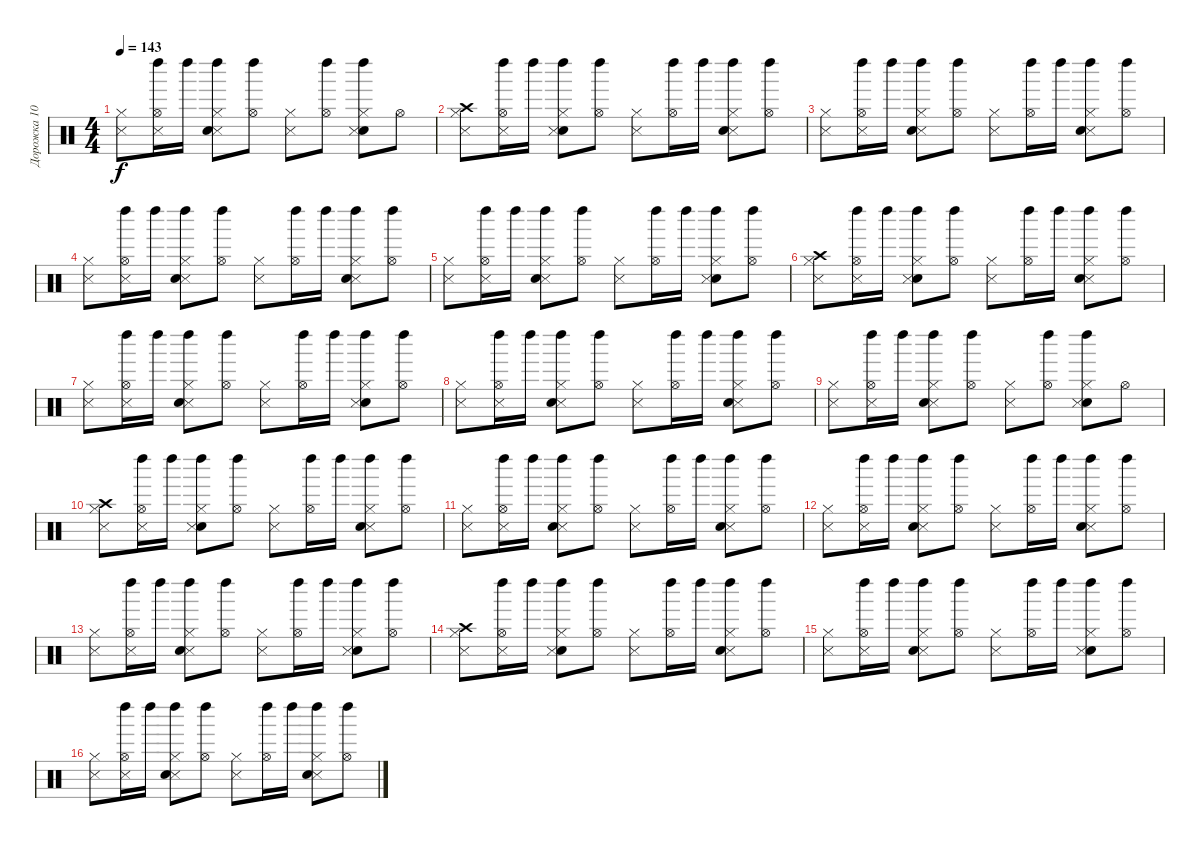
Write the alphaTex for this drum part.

\track ("Дорожка 10" "Дорожка 10") {instrument percussion}
\staff {score}
\articulation defaults
\ts (4 4)
\tempo 143
\clef neutral
\ks c
("Metronome (hit)" "Hi-Hat (closed)").8{dy f} ("Metronome (hit)" "Hi-Hat (open)" "Left Maraca (hit)").16 "Left Maraca (hit)".16 ("Metronome (hit)" "Electric Snare (hit)" "Hi-Hat (closed)" "Left Maraca (hit)").8 ("Hi-Hat (open)" "Left Maraca (hit)").8 ("Metronome (hit)" "Hi-Hat (closed)").8 ("Hi-Hat (open)" "Left Maraca (hit)").8 ("Electric Snare (hit)" "Metronome (hit)" "Hi-Hat (closed)" "Left Maraca (hit)").8 "Hi-Hat (open)".8 |
("Metronome (hit)" "Crash high (hit)" "Hi-Hat (closed)").8 ("Metronome (hit)" "Hi-Hat (open)" "Left Maraca (hit)").16 "Left Maraca (hit)".16 ("Electric Snare (hit)" "Metronome (hit)" "Hi-Hat (closed)" "Left Maraca (hit)").8 ("Hi-Hat (open)" "Left Maraca (hit)").8 ("Metronome (hit)" "Hi-Hat (closed)").8 ("Hi-Hat (open)" "Left Maraca (hit)").16 "Left Maraca (hit)".16 ("Metronome (hit)" "Electric Snare (hit)" "Hi-Hat (closed)" "Left Maraca (hit)").8 ("Hi-Hat (open)" "Left Maraca (hit)").8 |
("Metronome (hit)" "Hi-Hat (closed)").8 ("Metronome (hit)" "Hi-Hat (open)" "Left Maraca (hit)").16 "Left Maraca (hit)".16 ("Metronome (hit)" "Electric Snare (hit)" "Hi-Hat (closed)" "Left Maraca (hit)").8 ("Hi-Hat (open)" "Left Maraca (hit)").8 ("Metronome (hit)" "Hi-Hat (closed)").8 ("Hi-Hat (open)" "Left Maraca (hit)").16 "Left Maraca (hit)".16 ("Metronome (hit)" "Electric Snare (hit)" "Hi-Hat (closed)" "Left Maraca (hit)").8 ("Hi-Hat (open)" "Left Maraca (hit)").8 |
("Metronome (hit)" "Hi-Hat (closed)").8 ("Metronome (hit)" "Hi-Hat (open)" "Left Maraca (hit)").16 "Left Maraca (hit)".16 ("Metronome (hit)" "Electric Snare (hit)" "Hi-Hat (closed)" "Left Maraca (hit)").8 ("Hi-Hat (open)" "Left Maraca (hit)").8 ("Metronome (hit)" "Hi-Hat (closed)").8 ("Hi-Hat (open)" "Left Maraca (hit)").16 "Left Maraca (hit)".16 ("Metronome (hit)" "Electric Snare (hit)" "Hi-Hat (closed)" "Left Maraca (hit)").8 ("Hi-Hat (open)" "Left Maraca (hit)").8 |
("Metronome (hit)" "Hi-Hat (closed)").8 ("Metronome (hit)" "Hi-Hat (open)" "Left Maraca (hit)").16 "Left Maraca (hit)".16 ("Metronome (hit)" "Electric Snare (hit)" "Hi-Hat (closed)" "Left Maraca (hit)").8 ("Hi-Hat (open)" "Left Maraca (hit)").8 ("Metronome (hit)" "Hi-Hat (closed)").8 ("Hi-Hat (open)" "Left Maraca (hit)").16 "Left Maraca (hit)".16 ("Electric Snare (hit)" "Metronome (hit)" "Hi-Hat (closed)" "Left Maraca (hit)").8 ("Hi-Hat (open)" "Left Maraca (hit)").8 |
("Metronome (hit)" "Crash high (hit)" "Hi-Hat (closed)").8 ("Metronome (hit)" "Hi-Hat (open)" "Left Maraca (hit)").16 "Left Maraca (hit)".16 ("Electric Snare (hit)" "Metronome (hit)" "Hi-Hat (closed)" "Left Maraca (hit)").8 ("Hi-Hat (open)" "Left Maraca (hit)").8 ("Metronome (hit)" "Hi-Hat (closed)").8 ("Hi-Hat (open)" "Left Maraca (hit)").16 "Left Maraca (hit)".16 ("Metronome (hit)" "Electric Snare (hit)" "Hi-Hat (closed)" "Left Maraca (hit)").8 ("Hi-Hat (open)" "Left Maraca (hit)").8 |
("Metronome (hit)" "Hi-Hat (closed)").8 ("Metronome (hit)" "Hi-Hat (open)" "Left Maraca (hit)").16 "Left Maraca (hit)".16 ("Metronome (hit)" "Electric Snare (hit)" "Hi-Hat (closed)" "Left Maraca (hit)").8 ("Hi-Hat (open)" "Left Maraca (hit)").8 ("Metronome (hit)" "Hi-Hat (closed)").8 ("Hi-Hat (open)" "Left Maraca (hit)").16 "Left Maraca (hit)".16 ("Electric Snare (hit)" "Metronome (hit)" "Hi-Hat (closed)" "Left Maraca (hit)").8 ("Hi-Hat (open)" "Left Maraca (hit)").8 |
("Metronome (hit)" "Hi-Hat (closed)").8 ("Metronome (hit)" "Hi-Hat (open)" "Left Maraca (hit)").16 "Left Maraca (hit)".16 ("Metronome (hit)" "Electric Snare (hit)" "Hi-Hat (closed)" "Left Maraca (hit)").8 ("Hi-Hat (open)" "Left Maraca (hit)").8 ("Metronome (hit)" "Hi-Hat (closed)").8 ("Hi-Hat (open)" "Left Maraca (hit)").16 "Left Maraca (hit)".16 ("Metronome (hit)" "Electric Snare (hit)" "Hi-Hat (closed)" "Left Maraca (hit)").8 ("Hi-Hat (open)" "Left Maraca (hit)").8 |
("Metronome (hit)" "Hi-Hat (closed)").8 ("Metronome (hit)" "Hi-Hat (open)" "Left Maraca (hit)").16 "Left Maraca (hit)".16 ("Metronome (hit)" "Electric Snare (hit)" "Hi-Hat (closed)" "Left Maraca (hit)").8 ("Hi-Hat (open)" "Left Maraca (hit)").8 ("Metronome (hit)" "Hi-Hat (closed)").8 ("Hi-Hat (open)" "Left Maraca (hit)").8 ("Electric Snare (hit)" "Metronome (hit)" "Hi-Hat (closed)" "Left Maraca (hit)").8 "Hi-Hat (open)".8 |
("Metronome (hit)" "Crash high (hit)" "Hi-Hat (closed)").8 ("Metronome (hit)" "Hi-Hat (open)" "Left Maraca (hit)").16 "Left Maraca (hit)".16 ("Electric Snare (hit)" "Metronome (hit)" "Hi-Hat (closed)" "Left Maraca (hit)").8 ("Hi-Hat (open)" "Left Maraca (hit)").8 ("Metronome (hit)" "Hi-Hat (closed)").8 ("Hi-Hat (open)" "Left Maraca (hit)").16 "Left Maraca (hit)".16 ("Metronome (hit)" "Electric Snare (hit)" "Hi-Hat (closed)" "Left Maraca (hit)").8 ("Hi-Hat (open)" "Left Maraca (hit)").8 |
("Metronome (hit)" "Hi-Hat (closed)").8 ("Metronome (hit)" "Hi-Hat (open)" "Left Maraca (hit)").16 "Left Maraca (hit)".16 ("Metronome (hit)" "Electric Snare (hit)" "Hi-Hat (closed)" "Left Maraca (hit)").8 ("Hi-Hat (open)" "Left Maraca (hit)").8 ("Metronome (hit)" "Hi-Hat (closed)").8 ("Hi-Hat (open)" "Left Maraca (hit)").16 "Left Maraca (hit)".16 ("Metronome (hit)" "Electric Snare (hit)" "Hi-Hat (closed)" "Left Maraca (hit)").8 ("Hi-Hat (open)" "Left Maraca (hit)").8 |
("Metronome (hit)" "Hi-Hat (closed)").8 ("Metronome (hit)" "Hi-Hat (open)" "Left Maraca (hit)").16 "Left Maraca (hit)".16 ("Metronome (hit)" "Electric Snare (hit)" "Hi-Hat (closed)" "Left Maraca (hit)").8 ("Hi-Hat (open)" "Left Maraca (hit)").8 ("Metronome (hit)" "Hi-Hat (closed)").8 ("Hi-Hat (open)" "Left Maraca (hit)").16 "Left Maraca (hit)".16 ("Metronome (hit)" "Electric Snare (hit)" "Hi-Hat (closed)" "Left Maraca (hit)").8 ("Hi-Hat (open)" "Left Maraca (hit)").8 |
("Metronome (hit)" "Hi-Hat (closed)").8 ("Metronome (hit)" "Hi-Hat (open)" "Left Maraca (hit)").16 "Left Maraca (hit)".16 ("Metronome (hit)" "Electric Snare (hit)" "Hi-Hat (closed)" "Left Maraca (hit)").8 ("Hi-Hat (open)" "Left Maraca (hit)").8 ("Metronome (hit)" "Hi-Hat (closed)").8 ("Hi-Hat (open)" "Left Maraca (hit)").16 "Left Maraca (hit)".16 ("Electric Snare (hit)" "Metronome (hit)" "Hi-Hat (closed)" "Left Maraca (hit)").8 ("Hi-Hat (open)" "Left Maraca (hit)").8 |
("Metronome (hit)" "Crash high (hit)" "Hi-Hat (closed)").8 ("Metronome (hit)" "Hi-Hat (open)" "Left Maraca (hit)").16 "Left Maraca (hit)".16 ("Electric Snare (hit)" "Metronome (hit)" "Hi-Hat (closed)" "Left Maraca (hit)").8 ("Hi-Hat (open)" "Left Maraca (hit)").8 ("Metronome (hit)" "Hi-Hat (closed)").8 ("Hi-Hat (open)" "Left Maraca (hit)").16 "Left Maraca (hit)".16 ("Metronome (hit)" "Electric Snare (hit)" "Hi-Hat (closed)" "Left Maraca (hit)").8 ("Hi-Hat (open)" "Left Maraca (hit)").8 |
("Metronome (hit)" "Hi-Hat (closed)").8 ("Metronome (hit)" "Hi-Hat (open)" "Left Maraca (hit)").16 "Left Maraca (hit)".16 ("Metronome (hit)" "Electric Snare (hit)" "Hi-Hat (closed)" "Left Maraca (hit)").8 ("Hi-Hat (open)" "Left Maraca (hit)").8 ("Metronome (hit)" "Hi-Hat (closed)").8 ("Hi-Hat (open)" "Left Maraca (hit)").16 "Left Maraca (hit)".16 ("Electric Snare (hit)" "Metronome (hit)" "Hi-Hat (closed)" "Left Maraca (hit)").8 ("Hi-Hat (open)" "Left Maraca (hit)").8 |
("Metronome (hit)" "Hi-Hat (closed)").8 ("Metronome (hit)" "Hi-Hat (open)" "Left Maraca (hit)").16 "Left Maraca (hit)".16 ("Metronome (hit)" "Electric Snare (hit)" "Hi-Hat (closed)" "Left Maraca (hit)").8 ("Hi-Hat (open)" "Left Maraca (hit)").8 ("Metronome (hit)" "Hi-Hat (closed)").8 ("Hi-Hat (open)" "Left Maraca (hit)").16 "Left Maraca (hit)".16 ("Metronome (hit)" "Electric Snare (hit)" "Hi-Hat (closed)" "Left Maraca (hit)").8 ("Hi-Hat (open)" "Left Maraca (hit)").8
